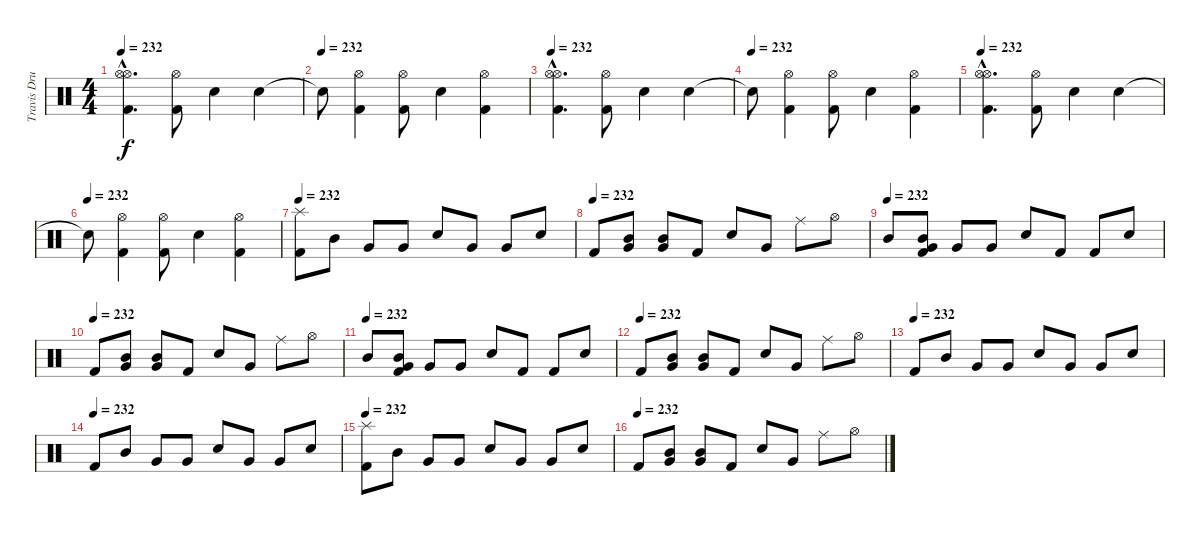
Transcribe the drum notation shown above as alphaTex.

\track ("Travis Drums" "Travis Dru") {instrument percussion}
\staff {score}
\articulation defaults
\ts (4 4)
\tempo 232
\clef neutral
\ks c
("Hi-Hat (open)"{hac} "Hi-Hat (open)"{hac} "Kick (hit) 2"{hac}).4{d dy f} ("Hi-Hat (open)" "Kick (hit) 2").8 "Electric Snare (hit)".4 "Electric Snare (hit)".4 |
\tempo (232)
"Snare (hit)"{t}.8 ("Hi-Hat (open)" "Kick (hit) 2").4 ("Hi-Hat (open)" "Kick (hit) 2").8 "Electric Snare (hit)".4 ("Hi-Hat (open)" "Kick (hit) 2").4 |
\tempo 232
("Hi-Hat (open)"{hac} "Hi-Hat (open)"{hac} "Kick (hit) 2"{hac}).4{d} ("Hi-Hat (open)" "Kick (hit) 2").8 "Electric Snare (hit)".4 "Electric Snare (hit)".4 |
\tempo (232)
"Snare (hit)"{t}.8 ("Hi-Hat (open)" "Kick (hit) 2").4 ("Hi-Hat (open)" "Kick (hit) 2").8 "Electric Snare (hit)".4 ("Hi-Hat (open)" "Kick (hit) 2").4 |
\tempo 232
("Hi-Hat (open)"{hac} "Hi-Hat (open)"{hac} "Kick (hit) 2"{hac}).4{d} ("Hi-Hat (open)" "Kick (hit) 2").8 "Electric Snare (hit)".4 "Electric Snare (hit)".4 |
\tempo (232)
"Snare (hit)"{t}.8 ("Hi-Hat (open)" "Kick (hit) 2").4 ("Hi-Hat (open)" "Kick (hit) 2").8 "Electric Snare (hit)".4 ("Hi-Hat (open)" "Kick (hit) 2").4 |
\tempo 232
("Splash (hit)" "Kick (hit) 2").8 "Mid Tom (hit)".8 "Very Low Tom (hit)".8 "Very Low Tom (hit)".8 "Electric Snare (hit)".8 "Very Low Tom (hit)".8 "Very Low Tom (hit)".8 "Electric Snare (hit)".8 |
\tempo (232)
"Kick (hit) 2".8 ("Mid Tom (hit)" "Very Low Tom (hit)").8 ("Mid Tom (hit)" "Very Low Tom (hit)").8 "Kick (hit) 2".8 "Electric Snare (hit)".8 "Very Low Tom (hit)".8 "Ride (middle)".8 "Hi-Hat (open)".8 |
\tempo (232)
"Mid Tom (hit)".8 ("Mid Tom (hit)" "Very Low Tom (hit)" "Kick (hit) 2").8 "Very Low Tom (hit)".8 "Very Low Tom (hit)".8 "Electric Snare (hit)".8 "Kick (hit) 2".8 "Kick (hit) 2".8 "Electric Snare (hit)".8 |
\tempo (232)
"Kick (hit) 2".8 ("Mid Tom (hit)" "Very Low Tom (hit)").8 ("Mid Tom (hit)" "Very Low Tom (hit)").8 "Kick (hit) 2".8 "Electric Snare (hit)".8 "Very Low Tom (hit)".8 "Ride (middle)".8 "Hi-Hat (open)".8 |
\tempo (232)
"Mid Tom (hit)".8 ("Mid Tom (hit)" "Very Low Tom (hit)" "Kick (hit) 2").8 "Very Low Tom (hit)".8 "Very Low Tom (hit)".8 "Electric Snare (hit)".8 "Kick (hit) 2".8 "Kick (hit) 2".8 "Electric Snare (hit)".8 |
\tempo (232)
"Kick (hit) 2".8 ("Mid Tom (hit)" "Very Low Tom (hit)").8 ("Mid Tom (hit)" "Very Low Tom (hit)").8 "Kick (hit) 2".8 "Electric Snare (hit)".8 "Very Low Tom (hit)".8 "Ride (middle)".8 "Hi-Hat (open)".8 |
\tempo (232)
"Kick (hit) 2".8 "Mid Tom (hit)".8 "Very Low Tom (hit)".8 "Very Low Tom (hit)".8 "Electric Snare (hit)".8 "Very Low Tom (hit)".8 "Very Low Tom (hit)".8 "Electric Snare (hit)".8 |
\tempo (232)
"Kick (hit) 2".8 "Mid Tom (hit)".8 "Very Low Tom (hit)".8 "Very Low Tom (hit)".8 "Electric Snare (hit)".8 "Very Low Tom (hit)".8 "Very Low Tom (hit)".8 "Electric Snare (hit)".8 |
\tempo 232
("Splash (hit)" "Kick (hit) 2").8 "Mid Tom (hit)".8 "Very Low Tom (hit)".8 "Very Low Tom (hit)".8 "Electric Snare (hit)".8 "Very Low Tom (hit)".8 "Very Low Tom (hit)".8 "Electric Snare (hit)".8 |
\tempo (232)
"Kick (hit) 2".8 ("Mid Tom (hit)" "Very Low Tom (hit)").8 ("Mid Tom (hit)" "Very Low Tom (hit)").8 "Kick (hit) 2".8 "Electric Snare (hit)".8 "Very Low Tom (hit)".8 "Ride (middle)".8 "Hi-Hat (open)".8
